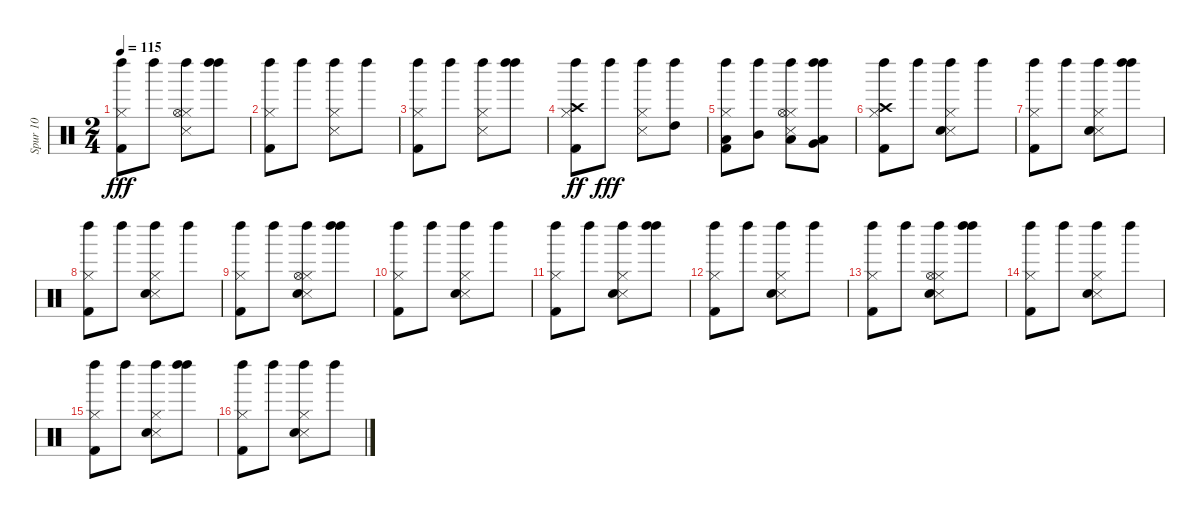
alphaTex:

\track ("Spur 10" "Spur 10") {instrument percussion}
\staff {score}
\articulation defaults
\ts (2 4)
\tempo 115
\clef neutral
\ks c
("Kick (hit) 2" "Hi-Hat (closed)" "Left Maraca (hit)").8{dy fff} "Left Maraca (hit)".8 ("Snare (side stick) 3" "Hi-Hat (closed)" "Hi-Hat (open)" "Left Maraca (hit)").8 ("Left Maraca (hit)" "Left Maraca (hit)").8 |
("Hi-Hat (closed)" "Kick (hit) 2" "Left Maraca (hit)").8 "Left Maraca (hit)".8 ("Hi-Hat (closed)" "Snare (side stick) 3" "Left Maraca (hit)").8 "Left Maraca (hit)".8 |
("Kick (hit) 2" "Hi-Hat (closed)" "Left Maraca (hit)").8 "Left Maraca (hit)".8 ("Hi-Hat (closed)" "Snare (side stick) 3" "Left Maraca (hit)").8 ("Left Maraca (hit)" "Left Maraca (hit)").8 |
("Kick (hit) 2" "Hi-Hat (closed)" "Left Maraca (hit)" "Crash high (hit)").8{dy ff} "Left Maraca (hit)".8{dy fff} ("Snare (side stick) 3" "Hi-Hat (closed)" "Left Maraca (hit)").8 ("Left Maraca (hit)" "High Tom (hit)").8 |
("Kick (hit) 2" "Hi-Hat (closed)" "Left Maraca (hit)" "Low Tom (hit)").8 ("Left Maraca (hit)" "Mid Tom (hit)").8 ("Snare (side stick) 3" "Hi-Hat (closed)" "Hi-Hat (open)" "Left Maraca (hit)" "Low Floor Tom (hit)").8 ("Left Maraca (hit)" "Left Maraca (hit)" "Low Tom (hit)" "Very Low Tom (hit)").8 |
("Hi-Hat (closed)" "Kick (hit) 2" "Crash high (hit)" "Left Maraca (hit)").8 "Left Maraca (hit)".8 ("Hi-Hat (closed)" "Snare (side stick) 3" "Left Maraca (hit)" "Electric Snare (hit)").8 "Left Maraca (hit)".8 |
("Left Maraca (hit)" "Kick (hit) 2" "Hi-Hat (closed)").8 "Left Maraca (hit)".8 ("Hi-Hat (closed)" "Snare (side stick) 3" "Left Maraca (hit)" "Electric Snare (hit)").8 ("Left Maraca (hit)" "Left Maraca (hit)").8 |
("Kick (hit) 2" "Hi-Hat (closed)" "Left Maraca (hit)").8 "Left Maraca (hit)".8 ("Snare (side stick) 3" "Hi-Hat (closed)" "Left Maraca (hit)" "Electric Snare (hit)").8 "Left Maraca (hit)".8 |
("Kick (hit) 2" "Hi-Hat (closed)" "Left Maraca (hit)").8 "Left Maraca (hit)".8 ("Snare (side stick) 3" "Hi-Hat (closed)" "Hi-Hat (open)" "Left Maraca (hit)" "Electric Snare (hit)").8 ("Left Maraca (hit)" "Left Maraca (hit)").8 |
("Hi-Hat (closed)" "Kick (hit) 2" "Left Maraca (hit)").8 "Left Maraca (hit)".8 ("Hi-Hat (closed)" "Snare (side stick) 3" "Left Maraca (hit)" "Electric Snare (hit)").8 "Left Maraca (hit)".8 |
("Left Maraca (hit)" "Kick (hit) 2" "Hi-Hat (closed)").8 "Left Maraca (hit)".8 ("Hi-Hat (closed)" "Snare (side stick) 3" "Left Maraca (hit)" "Electric Snare (hit)").8 ("Left Maraca (hit)" "Left Maraca (hit)").8 |
("Kick (hit) 2" "Hi-Hat (closed)" "Left Maraca (hit)").8 "Left Maraca (hit)".8 ("Snare (side stick) 3" "Hi-Hat (closed)" "Left Maraca (hit)" "Electric Snare (hit)").8 "Left Maraca (hit)".8 |
("Kick (hit) 2" "Hi-Hat (closed)" "Left Maraca (hit)").8 "Left Maraca (hit)".8 ("Snare (side stick) 3" "Hi-Hat (closed)" "Hi-Hat (open)" "Left Maraca (hit)" "Electric Snare (hit)").8 ("Left Maraca (hit)" "Left Maraca (hit)").8 |
("Hi-Hat (closed)" "Kick (hit) 2" "Left Maraca (hit)").8 "Left Maraca (hit)".8 ("Left Maraca (hit)" "Hi-Hat (closed)" "Snare (side stick) 3" "Electric Snare (hit)").8 "Left Maraca (hit)".8 |
("Left Maraca (hit)" "Kick (hit) 2" "Hi-Hat (closed)").8 "Left Maraca (hit)".8 ("Hi-Hat (closed)" "Snare (side stick) 3" "Left Maraca (hit)" "Electric Snare (hit)").8 ("Left Maraca (hit)" "Left Maraca (hit)").8 |
("Kick (hit) 2" "Hi-Hat (closed)" "Left Maraca (hit)").8 "Left Maraca (hit)".8 ("Left Maraca (hit)" "Snare (side stick) 3" "Hi-Hat (closed)" "Electric Snare (hit)").8 "Left Maraca (hit)".8
